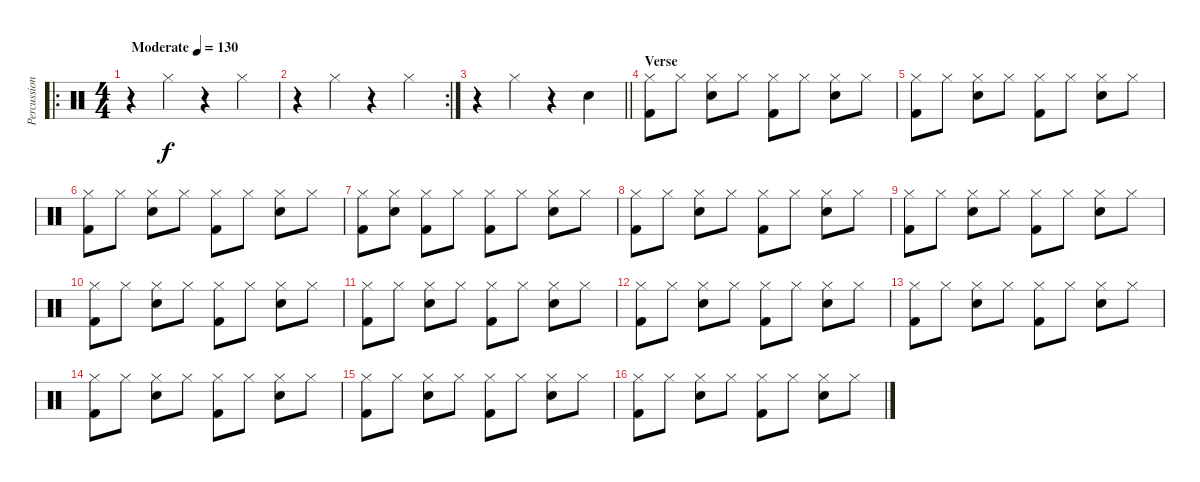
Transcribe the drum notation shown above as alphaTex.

\track ("Percussion" "Percussion") {instrument percussion}
\staff {score}
\articulation defaults
\ro
\ts (4 4)
\tempo (130 "Moderate")
\clef neutral
\ks c
r.4{dy f} "Hi-Hat (closed)".4 r.4 "Hi-Hat (closed)".4 |
\rc 2
r.4 "Hi-Hat (closed)".4 r.4 "Hi-Hat (closed)".4 |
\barLineRight lightlight
r.4 "Hi-Hat (closed)".4 r.4 "Snare (hit) 2".4 |
\section ("" "Verse")
("Kick (hit) 2" "Hi-Hat (closed)").8 "Hi-Hat (closed)".8 ("Hi-Hat (closed)" "Snare (hit) 2").8 "Hi-Hat (closed)".8 ("Hi-Hat (closed)" "Kick (hit) 2").8 "Hi-Hat (closed)".8 ("Hi-Hat (closed)" "Snare (hit) 2").8 "Hi-Hat (closed)".8 |
("Kick (hit) 2" "Hi-Hat (closed)").8 "Hi-Hat (closed)".8 ("Hi-Hat (closed)" "Snare (hit) 2").8 "Hi-Hat (closed)".8 ("Hi-Hat (closed)" "Kick (hit) 2").8 "Hi-Hat (closed)".8 ("Hi-Hat (closed)" "Snare (hit) 2").8 "Hi-Hat (closed)".8 |
("Kick (hit) 2" "Hi-Hat (closed)").8 "Hi-Hat (closed)".8 ("Hi-Hat (closed)" "Snare (hit) 2").8 "Hi-Hat (closed)".8 ("Hi-Hat (closed)" "Kick (hit) 2").8 "Hi-Hat (closed)".8 ("Hi-Hat (closed)" "Snare (hit) 2").8 "Hi-Hat (closed)".8 |
("Kick (hit) 2" "Hi-Hat (closed)").8 ("Hi-Hat (closed)" "Snare (hit) 2").8 ("Hi-Hat (closed)" "Kick (hit) 2").8 "Hi-Hat (closed)".8 ("Hi-Hat (closed)" "Kick (hit) 2").8 "Hi-Hat (closed)".8 ("Hi-Hat (closed)" "Snare (hit) 2").8 "Hi-Hat (closed)".8 |
("Kick (hit) 2" "Hi-Hat (closed)").8 "Hi-Hat (closed)".8 ("Hi-Hat (closed)" "Snare (hit) 2").8 "Hi-Hat (closed)".8 ("Hi-Hat (closed)" "Kick (hit) 2").8 "Hi-Hat (closed)".8 ("Hi-Hat (closed)" "Snare (hit) 2").8 "Hi-Hat (closed)".8 |
("Kick (hit) 2" "Hi-Hat (closed)").8 "Hi-Hat (closed)".8 ("Hi-Hat (closed)" "Snare (hit) 2").8 "Hi-Hat (closed)".8 ("Hi-Hat (closed)" "Kick (hit) 2").8 "Hi-Hat (closed)".8 ("Hi-Hat (closed)" "Snare (hit) 2").8 "Hi-Hat (closed)".8 |
("Kick (hit) 2" "Hi-Hat (closed)").8 "Hi-Hat (closed)".8 ("Hi-Hat (closed)" "Snare (hit) 2").8 "Hi-Hat (closed)".8 ("Hi-Hat (closed)" "Kick (hit) 2").8 "Hi-Hat (closed)".8 ("Hi-Hat (closed)" "Snare (hit) 2").8 "Hi-Hat (closed)".8 |
("Kick (hit) 2" "Hi-Hat (closed)").8 "Hi-Hat (closed)".8 ("Hi-Hat (closed)" "Snare (hit) 2").8 "Hi-Hat (closed)".8 ("Hi-Hat (closed)" "Kick (hit) 2").8 "Hi-Hat (closed)".8 ("Hi-Hat (closed)" "Snare (hit) 2").8 "Hi-Hat (closed)".8 |
("Kick (hit) 2" "Hi-Hat (closed)").8 "Hi-Hat (closed)".8 ("Hi-Hat (closed)" "Snare (hit) 2").8 "Hi-Hat (closed)".8 ("Hi-Hat (closed)" "Kick (hit) 2").8 "Hi-Hat (closed)".8 ("Hi-Hat (closed)" "Snare (hit) 2").8 "Hi-Hat (closed)".8 |
("Kick (hit) 2" "Hi-Hat (closed)").8 "Hi-Hat (closed)".8 ("Hi-Hat (closed)" "Snare (hit) 2").8 "Hi-Hat (closed)".8 ("Hi-Hat (closed)" "Kick (hit) 2").8 "Hi-Hat (closed)".8 ("Hi-Hat (closed)" "Snare (hit) 2").8 "Hi-Hat (closed)".8 |
("Kick (hit) 2" "Hi-Hat (closed)").8 "Hi-Hat (closed)".8 ("Hi-Hat (closed)" "Snare (hit) 2").8 "Hi-Hat (closed)".8 ("Hi-Hat (closed)" "Kick (hit) 2").8 "Hi-Hat (closed)".8 ("Hi-Hat (closed)" "Snare (hit) 2").8 "Hi-Hat (closed)".8 |
("Kick (hit) 2" "Hi-Hat (closed)").8 "Hi-Hat (closed)".8 ("Hi-Hat (closed)" "Snare (hit) 2").8 "Hi-Hat (closed)".8 ("Hi-Hat (closed)" "Kick (hit) 2").8 "Hi-Hat (closed)".8 ("Hi-Hat (closed)" "Snare (hit) 2").8 "Hi-Hat (closed)".8 |
("Kick (hit) 2" "Hi-Hat (closed)").8 "Hi-Hat (closed)".8 ("Hi-Hat (closed)" "Snare (hit) 2").8 "Hi-Hat (closed)".8 ("Hi-Hat (closed)" "Kick (hit) 2").8 "Hi-Hat (closed)".8 ("Hi-Hat (closed)" "Snare (hit) 2").8 "Hi-Hat (closed)".8
